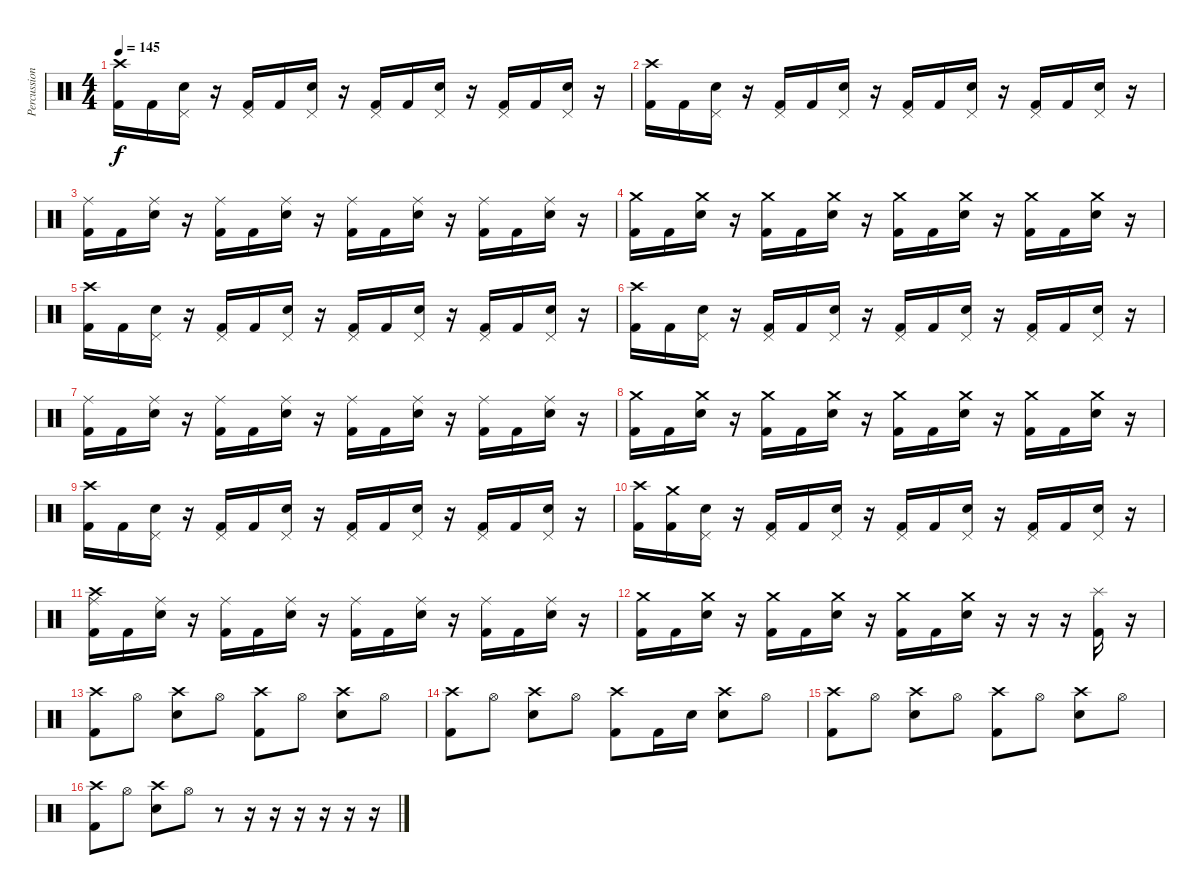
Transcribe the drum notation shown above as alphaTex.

\track ("Percussion" "Percussion") {instrument percussion}
\staff {score}
\articulation defaults
\ts (4 4)
\tempo 145
\clef neutral
\ks c
("Crash high (hit)" "Kick (hit) 2").16{dy f} "Kick (hit) 2".16 ("Pedal Hi-Hat (hit)" "Electric Snare (hit)").16 r.16 ("Pedal Hi-Hat (hit)" "Kick (hit) 2").16 "Kick (hit) 2".16 ("Pedal Hi-Hat (hit)" "Electric Snare (hit)").16 r.16 ("Pedal Hi-Hat (hit)" "Kick (hit) 2").16 "Kick (hit) 2".16 ("Pedal Hi-Hat (hit)" "Electric Snare (hit)").16 r.16 ("Pedal Hi-Hat (hit)" "Kick (hit) 2").16 "Kick (hit) 2".16 ("Pedal Hi-Hat (hit)" "Electric Snare (hit)").16 r.16 |
("Crash high (hit)" "Kick (hit) 2").16 "Kick (hit) 2".16 ("Pedal Hi-Hat (hit)" "Electric Snare (hit)").16 r.16 ("Pedal Hi-Hat (hit)" "Kick (hit) 2").16 "Kick (hit) 2".16 ("Pedal Hi-Hat (hit)" "Electric Snare (hit)").16 r.16 ("Pedal Hi-Hat (hit)" "Kick (hit) 2").16 "Kick (hit) 2".16 ("Pedal Hi-Hat (hit)" "Electric Snare (hit)").16 r.16 ("Pedal Hi-Hat (hit)" "Kick (hit) 2").16 "Kick (hit) 2".16 ("Pedal Hi-Hat (hit)" "Electric Snare (hit)").16 r.16 |
("Ride (middle)" "Kick (hit) 2").16 "Kick (hit) 2".16 ("Ride (middle)" "Electric Snare (hit)").16 r.16 ("Ride (middle)" "Kick (hit) 2").16 "Kick (hit) 2".16 ("Ride (middle)" "Electric Snare (hit)").16 r.16 ("Ride (middle)" "Kick (hit) 2").16 "Kick (hit) 2".16 ("Ride (middle)" "Electric Snare (hit)").16 r.16 ("Ride (middle)" "Kick (hit) 2").16 "Kick (hit) 2".16 ("Ride (middle)" "Electric Snare (hit)").16 r.16 |
("Crash medium (hit)" "Kick (hit) 2").16 "Kick (hit) 2".16 ("Crash medium (hit)" "Electric Snare (hit)").16 r.16 ("Crash medium (hit)" "Kick (hit) 2").16 "Kick (hit) 2".16 ("Crash medium (hit)" "Electric Snare (hit)").16 r.16 ("Crash medium (hit)" "Kick (hit) 2").16 "Kick (hit) 2".16 ("Crash medium (hit)" "Electric Snare (hit)").16 r.16 ("Crash medium (hit)" "Kick (hit) 2").16 "Kick (hit) 2".16 ("Crash medium (hit)" "Electric Snare (hit)").16 r.16 |
("Crash high (hit)" "Kick (hit) 2").16 "Kick (hit) 2".16 ("Pedal Hi-Hat (hit)" "Electric Snare (hit)").16 r.16 ("Pedal Hi-Hat (hit)" "Kick (hit) 2").16 "Kick (hit) 2".16 ("Pedal Hi-Hat (hit)" "Electric Snare (hit)").16 r.16 ("Pedal Hi-Hat (hit)" "Kick (hit) 2").16 "Kick (hit) 2".16 ("Pedal Hi-Hat (hit)" "Electric Snare (hit)").16 r.16 ("Pedal Hi-Hat (hit)" "Kick (hit) 2").16 "Kick (hit) 2".16 ("Pedal Hi-Hat (hit)" "Electric Snare (hit)").16 r.16 |
("Crash high (hit)" "Kick (hit) 2").16 "Kick (hit) 2".16 ("Pedal Hi-Hat (hit)" "Electric Snare (hit)").16 r.16 ("Pedal Hi-Hat (hit)" "Kick (hit) 2").16 "Kick (hit) 2".16 ("Pedal Hi-Hat (hit)" "Electric Snare (hit)").16 r.16 ("Pedal Hi-Hat (hit)" "Kick (hit) 2").16 "Kick (hit) 2".16 ("Pedal Hi-Hat (hit)" "Electric Snare (hit)").16 r.16 ("Pedal Hi-Hat (hit)" "Kick (hit) 2").16 "Kick (hit) 2".16 ("Pedal Hi-Hat (hit)" "Electric Snare (hit)").16 r.16 |
("Ride (middle)" "Kick (hit) 2").16 "Kick (hit) 2".16 ("Ride (middle)" "Electric Snare (hit)").16 r.16 ("Ride (middle)" "Kick (hit) 2").16 "Kick (hit) 2".16 ("Ride (middle)" "Electric Snare (hit)").16 r.16 ("Ride (middle)" "Kick (hit) 2").16 "Kick (hit) 2".16 ("Ride (middle)" "Electric Snare (hit)").16 r.16 ("Ride (middle)" "Kick (hit) 2").16 "Kick (hit) 2".16 ("Ride (middle)" "Electric Snare (hit)").16 r.16 |
("Crash medium (hit)" "Kick (hit) 2").16 "Kick (hit) 2".16 ("Crash medium (hit)" "Electric Snare (hit)").16 r.16 ("Crash medium (hit)" "Kick (hit) 2").16 "Kick (hit) 2".16 ("Crash medium (hit)" "Electric Snare (hit)").16 r.16 ("Crash medium (hit)" "Kick (hit) 2").16 "Kick (hit) 2".16 ("Crash medium (hit)" "Electric Snare (hit)").16 r.16 ("Crash medium (hit)" "Kick (hit) 2").16 "Kick (hit) 2".16 ("Crash medium (hit)" "Electric Snare (hit)").16 r.16 |
("Crash high (hit)" "Kick (hit) 2").16 "Kick (hit) 2".16 ("Pedal Hi-Hat (hit)" "Electric Snare (hit)").16 r.16 ("Pedal Hi-Hat (hit)" "Kick (hit) 2").16 "Kick (hit) 2".16 ("Pedal Hi-Hat (hit)" "Electric Snare (hit)").16 r.16 ("Pedal Hi-Hat (hit)" "Kick (hit) 2").16 "Kick (hit) 2".16 ("Pedal Hi-Hat (hit)" "Electric Snare (hit)").16 r.16 ("Pedal Hi-Hat (hit)" "Kick (hit) 2").16 "Kick (hit) 2".16 ("Pedal Hi-Hat (hit)" "Electric Snare (hit)").16 r.16 |
("Crash high (hit)" "Kick (hit) 2").16 ("Crash medium (hit)" "Kick (hit) 2").16 ("Pedal Hi-Hat (hit)" "Electric Snare (hit)").16 r.16 ("Pedal Hi-Hat (hit)" "Kick (hit) 2").16 "Kick (hit) 2".16 ("Pedal Hi-Hat (hit)" "Electric Snare (hit)").16 r.16 ("Pedal Hi-Hat (hit)" "Kick (hit) 2").16 "Kick (hit) 2".16 ("Pedal Hi-Hat (hit)" "Electric Snare (hit)").16 r.16 ("Pedal Hi-Hat (hit)" "Kick (hit) 2").16 "Kick (hit) 2".16 ("Pedal Hi-Hat (hit)" "Electric Snare (hit)").16 r.16 |
("Crash high (hit)" "Ride (middle)" "Kick (hit) 2").16 "Kick (hit) 2".16 ("Ride (middle)" "Electric Snare (hit)").16 r.16 ("Ride (middle)" "Kick (hit) 2").16 "Kick (hit) 2".16 ("Ride (middle)" "Electric Snare (hit)").16 r.16 ("Ride (middle)" "Kick (hit) 2").16 "Kick (hit) 2".16 ("Ride (middle)" "Electric Snare (hit)").16 r.16 ("Ride (middle)" "Kick (hit) 2").16 "Kick (hit) 2".16 ("Ride (middle)" "Electric Snare (hit)").16 r.16 |
("Crash medium (hit)" "Kick (hit) 2").16 "Kick (hit) 2".16 ("Crash medium (hit)" "Electric Snare (hit)").16 r.16 ("Crash medium (hit)" "Kick (hit) 2").16 "Kick (hit) 2".16 ("Crash medium (hit)" "Electric Snare (hit)").16 r.16 ("Crash medium (hit)" "Kick (hit) 2").16 "Kick (hit) 2".16 ("Crash medium (hit)" "Electric Snare (hit)").16 r.16 r.16 r.16 ("Splash (hit)" "Kick (hit) 2").16 r.16 |
("Crash high (hit)" "Kick (hit) 2").8 "Hi-Hat (open)".8 ("Crash high (hit)" "Electric Snare (hit)").8 "Hi-Hat (open)".8 ("Crash high (hit)" "Kick (hit) 2").8 "Hi-Hat (open)".8 ("Crash high (hit)" "Electric Snare (hit)").8 "Hi-Hat (open)".8 |
("Crash high (hit)" "Kick (hit) 2").8 "Hi-Hat (open)".8 ("Crash high (hit)" "Electric Snare (hit)").8 "Hi-Hat (open)".8 ("Crash high (hit)" "Kick (hit) 2").8 "Kick (hit) 2".16 "Electric Snare (hit)".16 ("Crash high (hit)" "Electric Snare (hit)").8 "Hi-Hat (open)".8 |
("Crash high (hit)" "Kick (hit) 2").8 "Hi-Hat (open)".8 ("Crash high (hit)" "Electric Snare (hit)").8 "Hi-Hat (open)".8 ("Crash high (hit)" "Kick (hit) 2").8 "Hi-Hat (open)".8 ("Crash high (hit)" "Electric Snare (hit)").8 "Hi-Hat (open)".8 |
("Crash high (hit)" "Kick (hit) 2").8 "Hi-Hat (open)".8 ("Crash high (hit)" "Electric Snare (hit)").8 "Hi-Hat (open)".8 r.8 r.16 r.16 r.16 r.16 r.16 r.16
